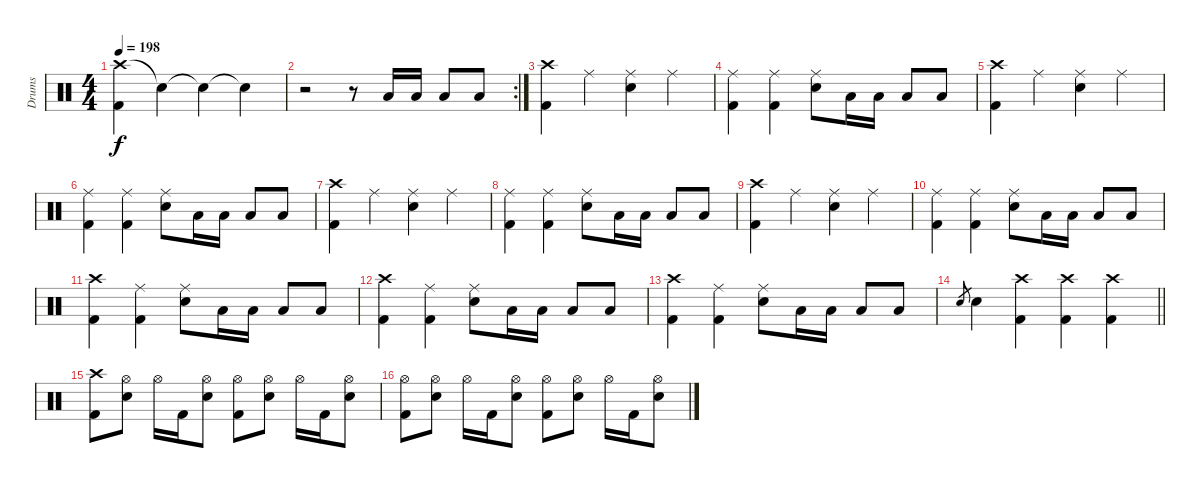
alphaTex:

\track ("Drums" "Drums") {instrument percussion}
\staff {score}
\articulation defaults
\ts (4 4)
\tempo 198
\clef neutral
\ks c
("Crash high (hit)" "Kick (hit) 2").4{dy f} "Snare (hit)"{t}.4 "Snare (hit)"{t}.4 "Snare (hit)"{t}.4 |
\rc 2
r.2 r.8 "Low Floor Tom (hit)".16 "Low Floor Tom (hit)".16 "Low Floor Tom (hit)".8 "Low Floor Tom (hit)".8 |
("Crash high (hit)" "Kick (hit) 2").4 "Ride (middle)".4 ("Ride (middle)" "Snare (hit) 2").4 "Ride (middle)".4 |
("Ride (middle)" "Kick (hit) 2").4 ("Ride (middle)" "Kick (hit) 2").4 ("Ride (middle)" "Snare (hit) 2").8 "Low Floor Tom (hit)".16 "Low Floor Tom (hit)".16 "Low Floor Tom (hit)".8 "Low Floor Tom (hit)".8 |
("Crash high (hit)" "Kick (hit) 2").4 "Ride (middle)".4 ("Ride (middle)" "Snare (hit) 2").4 "Ride (middle)".4 |
("Ride (middle)" "Kick (hit) 2").4 ("Ride (middle)" "Kick (hit) 2").4 ("Ride (middle)" "Snare (hit) 2").8 "Low Floor Tom (hit)".16 "Low Floor Tom (hit)".16 "Low Floor Tom (hit)".8 "Low Floor Tom (hit)".8 |
("Crash high (hit)" "Kick (hit) 2").4 "Ride (middle)".4 ("Ride (middle)" "Snare (hit) 2").4 "Ride (middle)".4 |
("Ride (middle)" "Kick (hit) 2").4 ("Ride (middle)" "Kick (hit) 2").4 ("Ride (middle)" "Snare (hit) 2").8 "Low Floor Tom (hit)".16 "Low Floor Tom (hit)".16 "Low Floor Tom (hit)".8 "Low Floor Tom (hit)".8 |
("Crash high (hit)" "Kick (hit) 2").4 "Ride (middle)".4 ("Ride (middle)" "Snare (hit) 2").4 "Ride (middle)".4 |
("Ride (middle)" "Kick (hit) 2").4 ("Ride (middle)" "Kick (hit) 2").4 ("Ride (middle)" "Snare (hit) 2").8 "Low Floor Tom (hit)".16 "Low Floor Tom (hit)".16 "Low Floor Tom (hit)".8 "Low Floor Tom (hit)".8 |
("Crash high (hit)" "Kick (hit) 2").4 ("Ride (middle)" "Kick (hit) 2").4 ("Ride (middle)" "Snare (hit) 2").8 "Low Floor Tom (hit)".16 "Low Floor Tom (hit)".16 "Low Floor Tom (hit)".8 "Low Floor Tom (hit)".8 |
("Crash high (hit)" "Kick (hit) 2").4 ("Ride (middle)" "Kick (hit) 2").4 ("Ride (middle)" "Snare (hit) 2").8 "Low Floor Tom (hit)".16 "Low Floor Tom (hit)".16 "Low Floor Tom (hit)".8 "Low Floor Tom (hit)".8 |
("Crash high (hit)" "Kick (hit) 2").4 ("Ride (middle)" "Kick (hit) 2").4 ("Ride (middle)" "Snare (hit) 2").8 "Low Floor Tom (hit)".16 "Low Floor Tom (hit)".16 "Low Floor Tom (hit)".8 "Low Floor Tom (hit)".8 |
\barLineRight lightlight "Snare (hit) 2".8{gr} "Snare (hit) 2".4
("Crash high (hit)" "Kick (hit) 2").4 ("Crash high (hit)" "Kick (hit) 2").4 ("Crash high (hit)" "Kick (hit) 2").4 |
("Crash high (hit)" "Kick (hit) 2").8 ("Hi-Hat (open)" "Snare (hit) 2").8 "Hi-Hat (open)".16 "Kick (hit) 2".16 ("Hi-Hat (open)" "Snare (hit) 2").8 ("Hi-Hat (open)" "Kick (hit) 2").8 ("Hi-Hat (open)" "Snare (hit) 2").8 "Hi-Hat (open)".16 "Kick (hit) 2".16 ("Hi-Hat (open)" "Snare (hit) 2").8 |
("Hi-Hat (open)" "Kick (hit) 2").8 ("Hi-Hat (open)" "Snare (hit) 2").8 "Hi-Hat (open)".16 "Kick (hit) 2".16 ("Hi-Hat (open)" "Snare (hit) 2").8 ("Hi-Hat (open)" "Kick (hit) 2").8 ("Hi-Hat (open)" "Snare (hit) 2").8 "Hi-Hat (open)".16 "Kick (hit) 2".16 ("Hi-Hat (open)" "Snare (hit) 2").8
